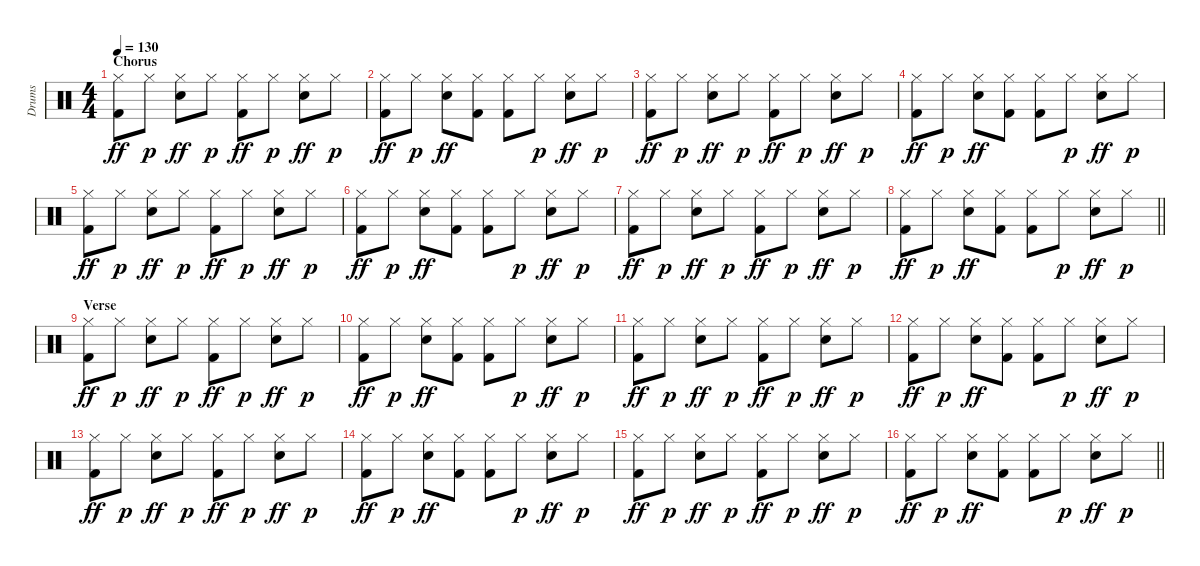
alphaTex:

\track ("Drums" "Drums") {instrument percussion}
\staff {score}
\articulation defaults
\ts (4 4)
\section ("" "Chorus")
\tempo 130
\clef neutral
\ks c
("Hi-Hat (closed)" "Kick (hit) 2").8{dy ff} "Hi-Hat (closed)".8{dy p} ("Hi-Hat (closed)" "Electric Snare (hit)").8{dy ff} "Hi-Hat (closed)".8{dy p} ("Hi-Hat (closed)" "Kick (hit) 2").8{dy ff} "Hi-Hat (closed)".8{dy p} ("Hi-Hat (closed)" "Electric Snare (hit)").8{dy ff} "Hi-Hat (closed)".8{dy p} |
("Hi-Hat (closed)" "Kick (hit) 2").8{dy ff} "Hi-Hat (closed)".8{dy p} ("Hi-Hat (closed)" "Electric Snare (hit)").8{dy ff} ("Hi-Hat (closed)" "Kick (hit) 2").8 ("Hi-Hat (closed)" "Kick (hit) 2").8 "Hi-Hat (closed)".8{dy p} ("Hi-Hat (closed)" "Electric Snare (hit)").8{dy ff} "Hi-Hat (closed)".8{dy p} |
("Hi-Hat (closed)" "Kick (hit) 2").8{dy ff} "Hi-Hat (closed)".8{dy p} ("Hi-Hat (closed)" "Electric Snare (hit)").8{dy ff} "Hi-Hat (closed)".8{dy p} ("Hi-Hat (closed)" "Kick (hit) 2").8{dy ff} "Hi-Hat (closed)".8{dy p} ("Hi-Hat (closed)" "Electric Snare (hit)").8{dy ff} "Hi-Hat (closed)".8{dy p} |
("Hi-Hat (closed)" "Kick (hit) 2").8{dy ff} "Hi-Hat (closed)".8{dy p} ("Hi-Hat (closed)" "Electric Snare (hit)").8{dy ff} ("Hi-Hat (closed)" "Kick (hit) 2").8 ("Hi-Hat (closed)" "Kick (hit) 2").8 "Hi-Hat (closed)".8{dy p} ("Hi-Hat (closed)" "Electric Snare (hit)").8{dy ff} "Hi-Hat (closed)".8{dy p} |
("Hi-Hat (closed)" "Kick (hit) 2").8{dy ff} "Hi-Hat (closed)".8{dy p} ("Hi-Hat (closed)" "Electric Snare (hit)").8{dy ff} "Hi-Hat (closed)".8{dy p} ("Hi-Hat (closed)" "Kick (hit) 2").8{dy ff} "Hi-Hat (closed)".8{dy p} ("Hi-Hat (closed)" "Electric Snare (hit)").8{dy ff} "Hi-Hat (closed)".8{dy p} |
("Hi-Hat (closed)" "Kick (hit) 2").8{dy ff} "Hi-Hat (closed)".8{dy p} ("Hi-Hat (closed)" "Electric Snare (hit)").8{dy ff} ("Hi-Hat (closed)" "Kick (hit) 2").8 ("Hi-Hat (closed)" "Kick (hit) 2").8 "Hi-Hat (closed)".8{dy p} ("Hi-Hat (closed)" "Electric Snare (hit)").8{dy ff} "Hi-Hat (closed)".8{dy p} |
("Hi-Hat (closed)" "Kick (hit) 2").8{dy ff} "Hi-Hat (closed)".8{dy p} ("Hi-Hat (closed)" "Electric Snare (hit)").8{dy ff} "Hi-Hat (closed)".8{dy p} ("Hi-Hat (closed)" "Kick (hit) 2").8{dy ff} "Hi-Hat (closed)".8{dy p} ("Hi-Hat (closed)" "Electric Snare (hit)").8{dy ff} "Hi-Hat (closed)".8{dy p} |
\barLineRight lightlight
("Hi-Hat (closed)" "Kick (hit) 2").8{dy ff} "Hi-Hat (closed)".8{dy p} ("Hi-Hat (closed)" "Electric Snare (hit)").8{dy ff} ("Hi-Hat (closed)" "Kick (hit) 2").8 ("Hi-Hat (closed)" "Kick (hit) 2").8 "Hi-Hat (closed)".8{dy p} ("Hi-Hat (closed)" "Electric Snare (hit)").8{dy ff} "Hi-Hat (closed)".8{dy p} |
\section ("" "Verse")
("Hi-Hat (closed)" "Kick (hit) 2").8{dy ff} "Hi-Hat (closed)".8{dy p} ("Hi-Hat (closed)" "Electric Snare (hit)").8{dy ff} "Hi-Hat (closed)".8{dy p} ("Hi-Hat (closed)" "Kick (hit) 2").8{dy ff} "Hi-Hat (closed)".8{dy p} ("Hi-Hat (closed)" "Electric Snare (hit)").8{dy ff} "Hi-Hat (closed)".8{dy p} |
("Hi-Hat (closed)" "Kick (hit) 2").8{dy ff} "Hi-Hat (closed)".8{dy p} ("Hi-Hat (closed)" "Electric Snare (hit)").8{dy ff} ("Hi-Hat (closed)" "Kick (hit) 2").8 ("Hi-Hat (closed)" "Kick (hit) 2").8 "Hi-Hat (closed)".8{dy p} ("Hi-Hat (closed)" "Electric Snare (hit)").8{dy ff} "Hi-Hat (closed)".8{dy p} |
("Hi-Hat (closed)" "Kick (hit) 2").8{dy ff} "Hi-Hat (closed)".8{dy p} ("Hi-Hat (closed)" "Electric Snare (hit)").8{dy ff} "Hi-Hat (closed)".8{dy p} ("Hi-Hat (closed)" "Kick (hit) 2").8{dy ff} "Hi-Hat (closed)".8{dy p} ("Hi-Hat (closed)" "Electric Snare (hit)").8{dy ff} "Hi-Hat (closed)".8{dy p} |
("Hi-Hat (closed)" "Kick (hit) 2").8{dy ff} "Hi-Hat (closed)".8{dy p} ("Hi-Hat (closed)" "Electric Snare (hit)").8{dy ff} ("Hi-Hat (closed)" "Kick (hit) 2").8 ("Hi-Hat (closed)" "Kick (hit) 2").8 "Hi-Hat (closed)".8{dy p} ("Hi-Hat (closed)" "Electric Snare (hit)").8{dy ff} "Hi-Hat (closed)".8{dy p} |
("Hi-Hat (closed)" "Kick (hit) 2").8{dy ff} "Hi-Hat (closed)".8{dy p} ("Hi-Hat (closed)" "Electric Snare (hit)").8{dy ff} "Hi-Hat (closed)".8{dy p} ("Hi-Hat (closed)" "Kick (hit) 2").8{dy ff} "Hi-Hat (closed)".8{dy p} ("Hi-Hat (closed)" "Electric Snare (hit)").8{dy ff} "Hi-Hat (closed)".8{dy p} |
("Hi-Hat (closed)" "Kick (hit) 2").8{dy ff} "Hi-Hat (closed)".8{dy p} ("Hi-Hat (closed)" "Electric Snare (hit)").8{dy ff} ("Hi-Hat (closed)" "Kick (hit) 2").8 ("Hi-Hat (closed)" "Kick (hit) 2").8 "Hi-Hat (closed)".8{dy p} ("Hi-Hat (closed)" "Electric Snare (hit)").8{dy ff} "Hi-Hat (closed)".8{dy p} |
("Hi-Hat (closed)" "Kick (hit) 2").8{dy ff} "Hi-Hat (closed)".8{dy p} ("Hi-Hat (closed)" "Electric Snare (hit)").8{dy ff} "Hi-Hat (closed)".8{dy p} ("Hi-Hat (closed)" "Kick (hit) 2").8{dy ff} "Hi-Hat (closed)".8{dy p} ("Hi-Hat (closed)" "Electric Snare (hit)").8{dy ff} "Hi-Hat (closed)".8{dy p} |
\barLineRight lightlight
("Hi-Hat (closed)" "Kick (hit) 2").8{dy ff} "Hi-Hat (closed)".8{dy p} ("Hi-Hat (closed)" "Electric Snare (hit)").8{dy ff} ("Hi-Hat (closed)" "Kick (hit) 2").8 ("Hi-Hat (closed)" "Kick (hit) 2").8 "Hi-Hat (closed)".8{dy p} ("Hi-Hat (closed)" "Electric Snare (hit)").8{dy ff} "Hi-Hat (closed)".8{dy p}
